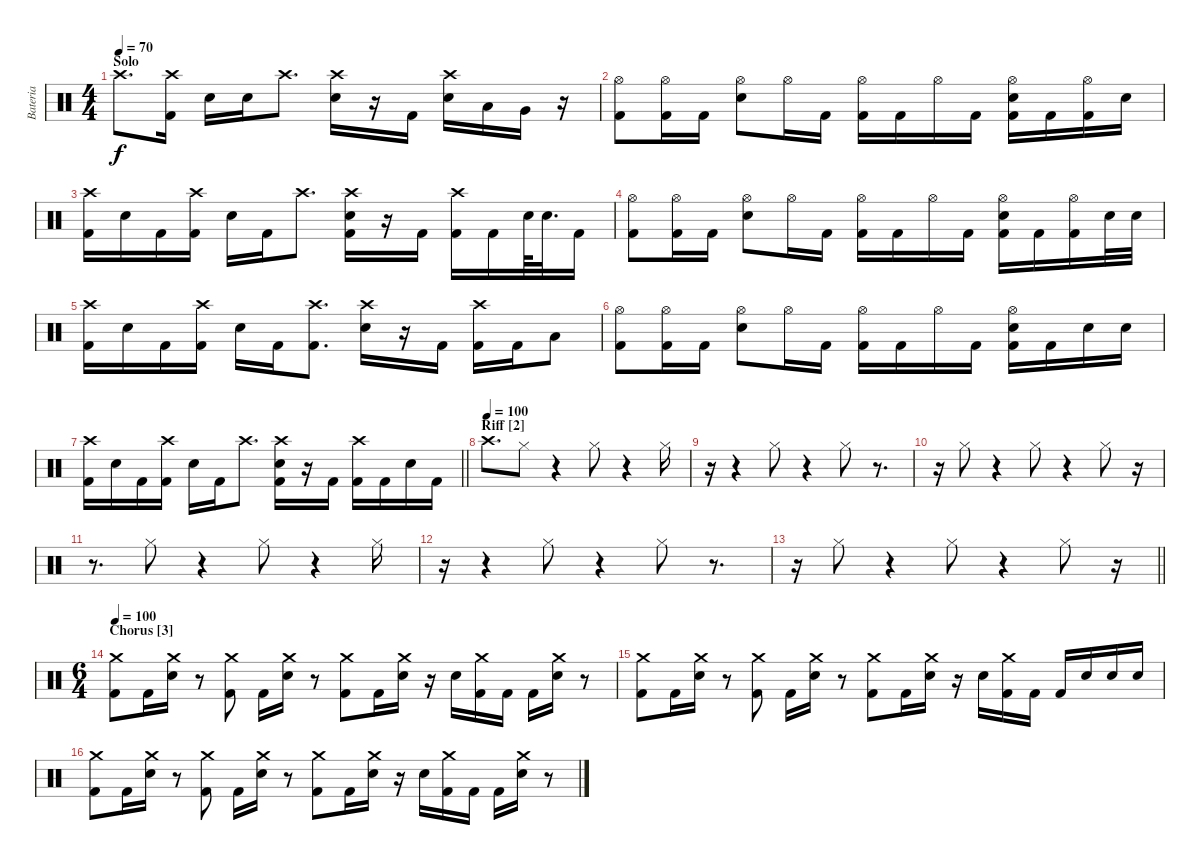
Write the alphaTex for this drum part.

\track ("Bateria" "Bateria") {instrument percussion}
\staff {score}
\articulation defaults
\ts (4 4)
\section ("" "Solo")
\tempo 70
\clef neutral
\ks c "Crash high (hit)".8{d dy f}
("Crash high (hit)" "Kick (hit) 2").16 "Electric Snare (hit)".16 "Electric Snare (hit)".16 "Crash high (hit)".8{d} ("Crash high (hit)" "Electric Snare (hit)").16 r.16 "Kick (hit) 2".16 ("Crash high (hit)" "Electric Snare (hit)").16 "Low Tom (hit)".16 "Very Low Tom (hit)".16 r.16 |
("Hi-Hat (open)" "Kick (hit) 2").8 ("Hi-Hat (open)" "Kick (hit) 2").16 "Kick (hit) 2".16 ("Hi-Hat (open)" "Electric Snare (hit)").8 "Hi-Hat (open)".16 "Kick (hit) 2".16 ("Hi-Hat (open)" "Kick (hit) 2").16 "Kick (hit) 2".16 "Hi-Hat (open)".16 "Kick (hit) 2".16 ("Hi-Hat (open)" "Electric Snare (hit)" "Kick (hit) 2").16 "Kick (hit) 2".16 ("Hi-Hat (open)" "Kick (hit) 2").16 "Electric Snare (hit)".16 |
("Crash high (hit)" "Kick (hit) 2").16 "Electric Snare (hit)".16 "Kick (hit) 2".16 ("Crash high (hit)" "Kick (hit) 2").16 "Electric Snare (hit)".16 "Kick (hit) 2".16 "Crash high (hit)".8{d} ("Crash high (hit)" "Electric Snare (hit)" "Kick (hit) 2").16 r.16 "Kick (hit) 2".16 ("Crash high (hit)" "Kick (hit) 2").16 "Kick (hit) 2".16 "Electric Snare (hit)".64 "Electric Snare (hit)".32{d} "Kick (hit) 2".16 |
("Hi-Hat (open)" "Kick (hit) 2").8 ("Hi-Hat (open)" "Kick (hit) 2").16 "Kick (hit) 2".16 ("Hi-Hat (open)" "Electric Snare (hit)").8 "Hi-Hat (open)".16 "Kick (hit) 2".16 ("Hi-Hat (open)" "Kick (hit) 2").16 "Kick (hit) 2".16 "Hi-Hat (open)".16 "Kick (hit) 2".16 ("Hi-Hat (open)" "Electric Snare (hit)" "Kick (hit) 2").16 "Kick (hit) 2".16 ("Hi-Hat (open)" "Kick (hit) 2").16 "Electric Snare (hit)".32 "Electric Snare (hit)".32 |
("Crash high (hit)" "Kick (hit) 2").16 "Electric Snare (hit)".16 "Kick (hit) 2".16 ("Crash high (hit)" "Kick (hit) 2").16 "Electric Snare (hit)".16 "Kick (hit) 2".16 ("Crash high (hit)" "Kick (hit) 2").8{d} ("Crash high (hit)" "Electric Snare (hit)").16 r.16 "Kick (hit) 2".16 ("Crash high (hit)" "Kick (hit) 2").16 "Kick (hit) 2".16 "Low Tom (hit)".8 |
("Hi-Hat (open)" "Kick (hit) 2").8 ("Hi-Hat (open)" "Kick (hit) 2").16 "Kick (hit) 2".16 ("Hi-Hat (open)" "Electric Snare (hit)").8 "Hi-Hat (open)".16 "Kick (hit) 2".16 ("Hi-Hat (open)" "Kick (hit) 2").16 "Kick (hit) 2".16 "Hi-Hat (open)".16 "Kick (hit) 2".16 ("Hi-Hat (open)" "Electric Snare (hit)" "Kick (hit) 2").16 "Kick (hit) 2".16 "Electric Snare (hit)".16 "Electric Snare (hit)".16 |
\barLineRight lightlight
("Crash high (hit)" "Kick (hit) 2").16 "Electric Snare (hit)".16 "Kick (hit) 2".16 ("Crash high (hit)" "Kick (hit) 2").16 "Electric Snare (hit)".16 "Kick (hit) 2".16 "Crash high (hit)".8{d} ("Crash high (hit)" "Electric Snare (hit)" "Kick (hit) 2").16 r.16 "Kick (hit) 2".16 ("Crash high (hit)" "Kick (hit) 2").16 "Kick (hit) 2".16 "Electric Snare (hit)".16 "Kick (hit) 2".16 |
\section ("" "Riff [2]")
\tempo (100)
"Crash high (hit)".8{d} "Hi-Hat (closed)".8 r.4 "Hi-Hat (closed)".8 r.4 "Hi-Hat (closed)".16 |
r.16 r.4 "Hi-Hat (closed)".8 r.4 "Hi-Hat (closed)".8 r.8{d} |
r.16 "Hi-Hat (closed)".8 r.4 "Hi-Hat (closed)".8 r.4 "Hi-Hat (closed)".8 r.16 |
r.8{d} "Hi-Hat (closed)".8 r.4 "Hi-Hat (closed)".8 r.4 "Hi-Hat (closed)".16 |
r.16 r.4 "Hi-Hat (closed)".8 r.4 "Hi-Hat (closed)".8 r.8{d} |
\barLineRight lightlight
r.16 "Hi-Hat (closed)".8 r.4 "Hi-Hat (closed)".8 r.4 "Hi-Hat (closed)".8 r.16 |
\ts (6 4)
\section ("" "Chorus [3]")
\tempo 100
("Crash medium (hit)" "Kick (hit) 2").8 "Kick (hit) 2".16 ("Crash medium (hit)" "Electric Snare (hit)").16 r.8 ("Crash medium (hit)" "Kick (hit) 2").8 "Kick (hit) 2".16 ("Crash medium (hit)" "Electric Snare (hit)").16 r.8 ("Crash medium (hit)" "Kick (hit) 2").8 "Kick (hit) 2".16 ("Crash medium (hit)" "Electric Snare (hit)").16 r.16 "Electric Snare (hit)".16 ("Crash medium (hit)" "Kick (hit) 2").16 "Kick (hit) 2".16 "Kick (hit) 2".16 ("Crash medium (hit)" "Electric Snare (hit)").16 r.8 |
("Crash medium (hit)" "Kick (hit) 2").8 "Kick (hit) 2".16 ("Crash medium (hit)" "Electric Snare (hit)").16 r.8 ("Crash medium (hit)" "Kick (hit) 2").8 "Kick (hit) 2".16 ("Crash medium (hit)" "Electric Snare (hit)").16 r.8 ("Crash medium (hit)" "Kick (hit) 2").8 "Kick (hit) 2".16 ("Crash medium (hit)" "Electric Snare (hit)").16 r.16 "Electric Snare (hit)".16 ("Crash medium (hit)" "Kick (hit) 2").16 "Kick (hit) 2".16 "Kick (hit) 2".16 "Electric Snare (hit)".16 "Electric Snare (hit)".16 "Electric Snare (hit)".16 |
("Crash medium (hit)" "Kick (hit) 2").8 "Kick (hit) 2".16 ("Crash medium (hit)" "Electric Snare (hit)").16 r.8 ("Crash medium (hit)" "Kick (hit) 2").8 "Kick (hit) 2".16 ("Crash medium (hit)" "Electric Snare (hit)").16 r.8 ("Crash medium (hit)" "Kick (hit) 2").8 "Kick (hit) 2".16 ("Crash medium (hit)" "Electric Snare (hit)").16 r.16 "Electric Snare (hit)".16 ("Crash medium (hit)" "Kick (hit) 2").16 "Kick (hit) 2".16 "Kick (hit) 2".16 ("Crash medium (hit)" "Electric Snare (hit)").16 r.8
